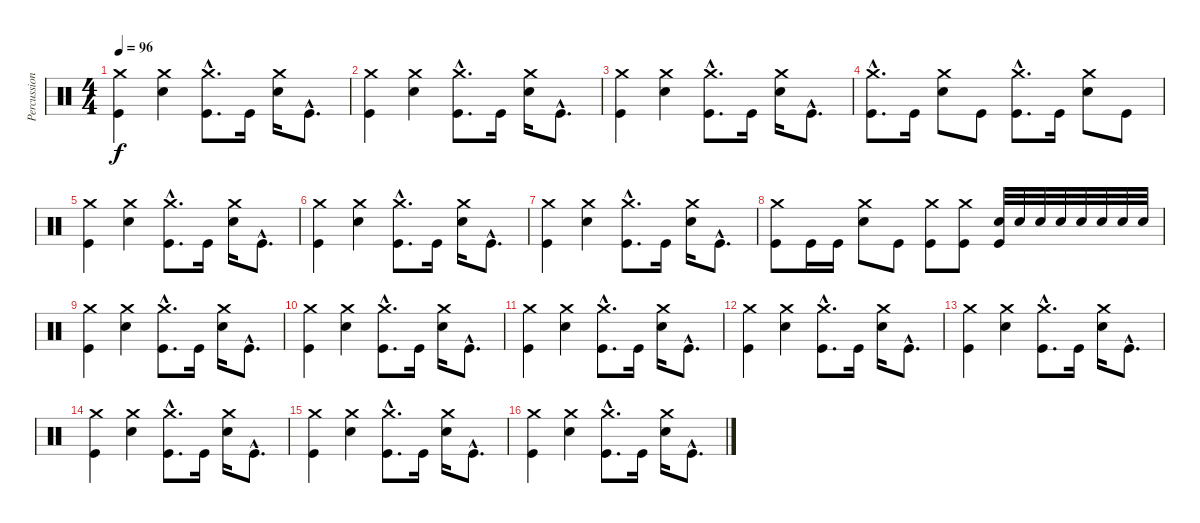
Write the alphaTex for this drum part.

\track ("Percussion" "Percussion") {instrument percussion}
\staff {score}
\articulation defaults
\ts (4 4)
\tempo 96
\clef neutral
\ks c
("Crash medium (hit)" "Kick (hit)").4{dy f} ("Crash medium (hit)" "Electric Snare (hit)").4 ("Crash medium (hit)"{hac} "Kick (hit)"{hac}).8{d} "Kick (hit)".16 ("Crash medium (hit)" "Electric Snare (hit)").16 "Kick (hit)"{hac}.8{d} |
("Crash medium (hit)" "Kick (hit)").4 ("Crash medium (hit)" "Electric Snare (hit)").4 ("Crash medium (hit)"{hac} "Kick (hit)"{hac}).8{d} "Kick (hit)".16 ("Crash medium (hit)" "Electric Snare (hit)").16 "Kick (hit)"{hac}.8{d} |
("Crash medium (hit)" "Kick (hit)").4 ("Crash medium (hit)" "Electric Snare (hit)").4 ("Crash medium (hit)"{hac} "Kick (hit)"{hac}).8{d} "Kick (hit)".16 ("Crash medium (hit)" "Electric Snare (hit)").16 "Kick (hit)"{hac}.8{d} |
("Crash medium (hit)"{hac} "Kick (hit)"{hac}).8{d} "Kick (hit)".16 ("Crash medium (hit)" "Electric Snare (hit)").8 "Kick (hit)".8 ("Crash medium (hit)"{hac} "Kick (hit)"{hac}).8{d} "Kick (hit)".16 ("Crash medium (hit)" "Electric Snare (hit)").8 "Kick (hit)".8 |
("Crash medium (hit)" "Kick (hit)").4 ("Crash medium (hit)" "Electric Snare (hit)").4 ("Crash medium (hit)"{hac} "Kick (hit)"{hac}).8{d} "Kick (hit)".16 ("Crash medium (hit)" "Electric Snare (hit)").16 "Kick (hit)"{hac}.8{d} |
("Crash medium (hit)" "Kick (hit)").4 ("Crash medium (hit)" "Electric Snare (hit)").4 ("Crash medium (hit)"{hac} "Kick (hit)"{hac}).8{d} "Kick (hit)".16 ("Crash medium (hit)" "Electric Snare (hit)").16 "Kick (hit)"{hac}.8{d} |
("Crash medium (hit)" "Kick (hit)").4 ("Crash medium (hit)" "Electric Snare (hit)").4 ("Crash medium (hit)"{hac} "Kick (hit)"{hac}).8{d} "Kick (hit)".16 ("Crash medium (hit)" "Electric Snare (hit)").16 "Kick (hit)"{hac}.8{d} |
("Crash medium (hit)" "Kick (hit)").8 "Kick (hit)".16 "Kick (hit)".16 ("Electric Snare (hit)" "Crash medium (hit)").8 "Kick (hit)".8 ("Crash medium (hit)" "Kick (hit)").8 ("Crash medium (hit)" "Kick (hit)").8 ("Electric Snare (hit)" "Kick (hit)").32 "Electric Snare (hit)".32 "Electric Snare (hit)".32 "Electric Snare (hit)".32 "Electric Snare (hit)".32 "Electric Snare (hit)".32 "Electric Snare (hit)".32 "Electric Snare (hit)".32 |
("Crash medium (hit)" "Kick (hit)").4 ("Crash medium (hit)" "Electric Snare (hit)").4 ("Crash medium (hit)"{hac} "Kick (hit)"{hac}).8{d} "Kick (hit)".16 ("Crash medium (hit)" "Electric Snare (hit)").16 "Kick (hit)"{hac}.8{d} |
("Crash medium (hit)" "Kick (hit)").4 ("Crash medium (hit)" "Electric Snare (hit)").4 ("Crash medium (hit)"{hac} "Kick (hit)"{hac}).8{d} "Kick (hit)".16 ("Crash medium (hit)" "Electric Snare (hit)").16 "Kick (hit)"{hac}.8{d} |
("Crash medium (hit)" "Kick (hit)").4 ("Crash medium (hit)" "Electric Snare (hit)").4 ("Crash medium (hit)"{hac} "Kick (hit)"{hac}).8{d} "Kick (hit)".16 ("Crash medium (hit)" "Electric Snare (hit)").16 "Kick (hit)"{hac}.8{d} |
("Crash medium (hit)" "Kick (hit)").4 ("Crash medium (hit)" "Electric Snare (hit)").4 ("Crash medium (hit)"{hac} "Kick (hit)"{hac}).8{d} "Kick (hit)".16 ("Crash medium (hit)" "Electric Snare (hit)").16 "Kick (hit)"{hac}.8{d} |
("Crash medium (hit)" "Kick (hit)").4 ("Crash medium (hit)" "Electric Snare (hit)").4 ("Crash medium (hit)"{hac} "Kick (hit)"{hac}).8{d} "Kick (hit)".16 ("Crash medium (hit)" "Electric Snare (hit)").16 "Kick (hit)"{hac}.8{d} |
("Crash medium (hit)" "Kick (hit)").4 ("Crash medium (hit)" "Electric Snare (hit)").4 ("Crash medium (hit)"{hac} "Kick (hit)"{hac}).8{d} "Kick (hit)".16 ("Crash medium (hit)" "Electric Snare (hit)").16 "Kick (hit)"{hac}.8{d} |
("Crash medium (hit)" "Kick (hit)").4 ("Crash medium (hit)" "Electric Snare (hit)").4 ("Crash medium (hit)"{hac} "Kick (hit)"{hac}).8{d} "Kick (hit)".16 ("Crash medium (hit)" "Electric Snare (hit)").16 "Kick (hit)"{hac}.8{d} |
("Crash medium (hit)" "Kick (hit)").4 ("Crash medium (hit)" "Electric Snare (hit)").4 ("Crash medium (hit)"{hac} "Kick (hit)"{hac}).8{d} "Kick (hit)".16 ("Crash medium (hit)" "Electric Snare (hit)").16 "Kick (hit)"{hac}.8{d}
